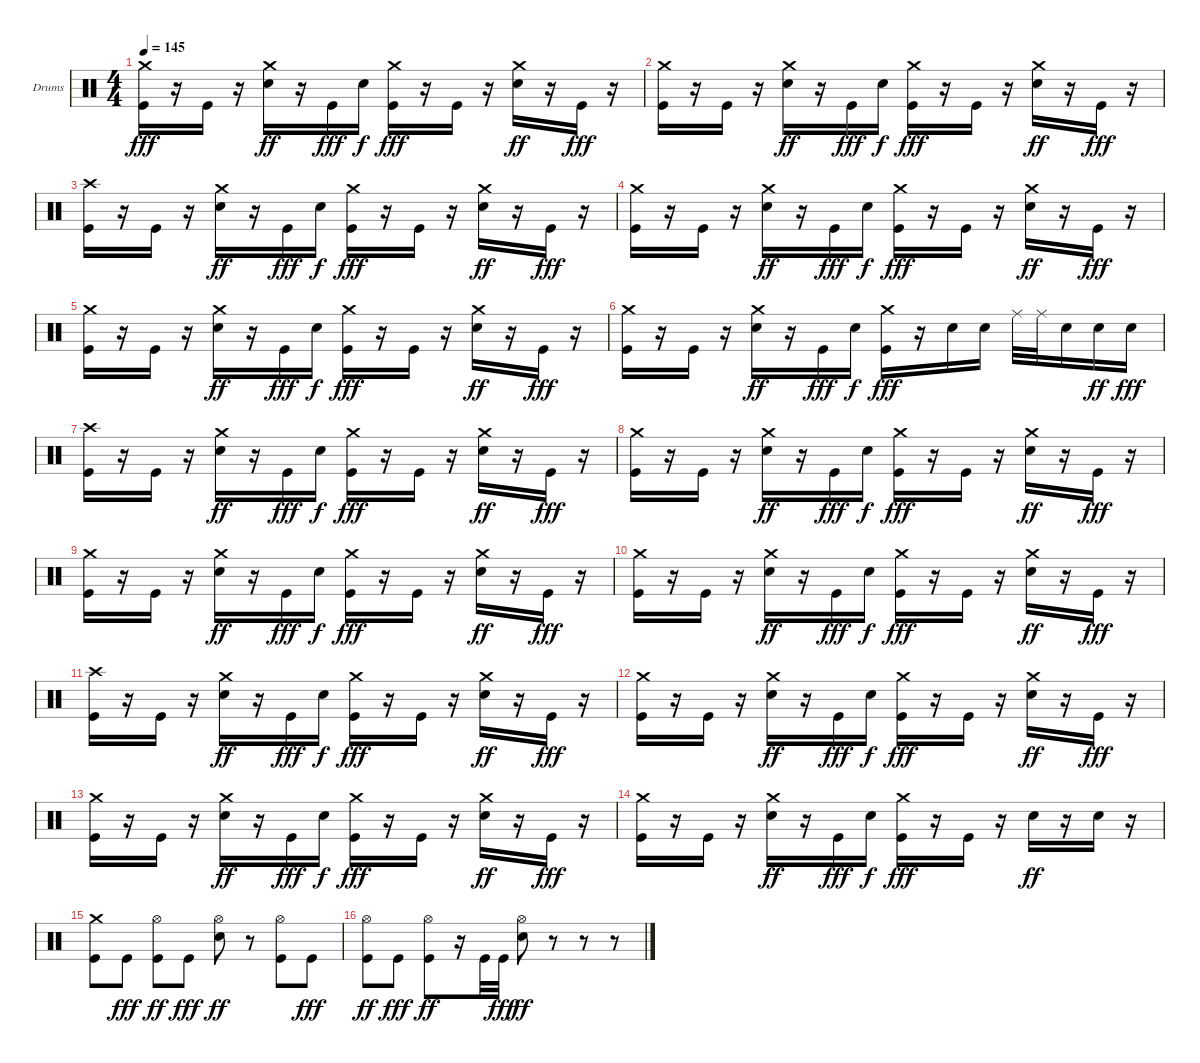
\defaultSystemsLayout 4
\bracketExtendMode groupsimilarinstruments
\firstSystemTrackNameOrientation horizontal
\otherSystemsTrackNameOrientation horizontal
\track ("Drumkit" "Drums") {instrument percussion}
\staff {score}
\articulation defaults
\ts (4 4)
\tempo 145
\clef neutral
\scale
0.333333
\ks c
("Kick (hit)" "Crash medium (hit)").16{dy fff} r.16 "Kick (hit)".16 r.16 ("Snare (hit) 2" "Crash medium (hit)").16{dy ff} r.16 "Kick (hit)".16{dy fff} "Snare (hit) 2".16{dy f} ("Kick (hit)" "Crash medium (hit)").16{dy fff} r.16 "Kick (hit)".16 r.16 ("Snare (hit) 2" "Crash medium (hit)").16{dy ff} r.16 "Kick (hit)".16{dy fff} r.16 |
\scale
0.333333 ("Kick (hit)" "Crash medium (hit)").16 r.16 "Kick (hit)".16 r.16 ("Snare (hit) 2" "Crash medium (hit)").16{dy ff} r.16 "Kick (hit)".16{dy fff} "Snare (hit) 2".16{dy f} ("Kick (hit)" "Crash medium (hit)").16{dy fff} r.16 "Kick (hit)".16 r.16 ("Snare (hit) 2" "Crash medium (hit)").16{dy ff} r.16 "Kick (hit)".16{dy fff} r.16 |
\scale
0.333333 ("Kick (hit)" "Crash high (hit)").16 r.16 "Kick (hit)".16 r.16 ("Snare (hit) 2" "Crash medium (hit)").16{dy ff} r.16 "Kick (hit)".16{dy fff} "Snare (hit) 2".16{dy f} ("Kick (hit)" "Crash medium (hit)").16{dy fff} r.16 "Kick (hit)".16 r.16 ("Snare (hit) 2" "Crash medium (hit)").16{dy ff} r.16 "Kick (hit)".16{dy fff} r.16 |
\scale
0.333333 ("Kick (hit)" "Crash medium (hit)").16 r.16 "Kick (hit)".16 r.16 ("Snare (hit) 2" "Crash medium (hit)").16{dy ff} r.16 "Kick (hit)".16{dy fff} "Snare (hit) 2".16{dy f} ("Kick (hit)" "Crash medium (hit)").16{dy fff} r.16 "Kick (hit)".16 r.16 ("Snare (hit) 2" "Crash medium (hit)").16{dy ff} r.16 "Kick (hit)".16{dy fff} r.16 |
\scale
0.333333 ("Kick (hit)" "Crash medium (hit)").16 r.16 "Kick (hit)".16 r.16 ("Snare (hit) 2" "Crash medium (hit)").16{dy ff} r.16 "Kick (hit)".16{dy fff} "Snare (hit) 2".16{dy f} ("Kick (hit)" "Crash medium (hit)").16{dy fff} r.16 "Kick (hit)".16 r.16 ("Snare (hit) 2" "Crash medium (hit)").16{dy ff} r.16 "Kick (hit)".16{dy fff} r.16 |
\scale
0.333333 ("Kick (hit)" "Crash medium (hit)").16 r.16 "Kick (hit)".16 r.16 ("Snare (hit) 2" "Crash medium (hit)").16{dy ff} r.16 "Kick (hit)".16{dy fff} "Snare (hit) 2".16{dy f} ("Kick (hit)" "Crash medium (hit)").16{dy fff} r.16 "Snare (hit) 2".16 "Snare (hit) 2".16 "Ride (middle)".32 "Ride (middle)".32 "Snare (hit) 2".16 "Snare (hit) 2".16{dy ff} "Snare (hit) 2".16{dy fff} |
\scale
0.333333 ("Kick (hit)" "Crash high (hit)").16 r.16 "Kick (hit)".16 r.16 ("Snare (hit) 2" "Crash medium (hit)").16{dy ff} r.16 "Kick (hit)".16{dy fff} "Snare (hit) 2".16{dy f} ("Kick (hit)" "Crash medium (hit)").16{dy fff} r.16 "Kick (hit)".16 r.16 ("Snare (hit) 2" "Crash medium (hit)").16{dy ff} r.16 "Kick (hit)".16{dy fff} r.16 |
\scale
0.333333 ("Kick (hit)" "Crash medium (hit)").16 r.16 "Kick (hit)".16 r.16 ("Snare (hit) 2" "Crash medium (hit)").16{dy ff} r.16 "Kick (hit)".16{dy fff} "Snare (hit) 2".16{dy f} ("Kick (hit)" "Crash medium (hit)").16{dy fff} r.16 "Kick (hit)".16 r.16 ("Snare (hit) 2" "Crash medium (hit)").16{dy ff} r.16 "Kick (hit)".16{dy fff} r.16 |
\scale
0.333333 ("Kick (hit)" "Crash medium (hit)").16 r.16 "Kick (hit)".16 r.16 ("Snare (hit) 2" "Crash medium (hit)").16{dy ff} r.16 "Kick (hit)".16{dy fff} "Snare (hit) 2".16{dy f} ("Kick (hit)" "Crash medium (hit)").16{dy fff} r.16 "Kick (hit)".16 r.16 ("Snare (hit) 2" "Crash medium (hit)").16{dy ff} r.16 "Kick (hit)".16{dy fff} r.16 |
\scale
0.333333 ("Kick (hit)" "Crash medium (hit)").16 r.16 "Kick (hit)".16 r.16 ("Snare (hit) 2" "Crash medium (hit)").16{dy ff} r.16 "Kick (hit)".16{dy fff} "Snare (hit) 2".16{dy f} ("Kick (hit)" "Crash medium (hit)").16{dy fff} r.16 "Kick (hit)".16 r.16 ("Snare (hit) 2" "Crash medium (hit)").16{dy ff} r.16 "Kick (hit)".16{dy fff} r.16 |
\scale
0.333333 ("Kick (hit)" "Crash high (hit)").16 r.16 "Kick (hit)".16 r.16 ("Snare (hit) 2" "Crash medium (hit)").16{dy ff} r.16 "Kick (hit)".16{dy fff} "Snare (hit) 2".16{dy f} ("Kick (hit)" "Crash medium (hit)").16{dy fff} r.16 "Kick (hit)".16 r.16 ("Snare (hit) 2" "Crash medium (hit)").16{dy ff} r.16 "Kick (hit)".16{dy fff} r.16 |
\scale
0.333333 ("Kick (hit)" "Crash medium (hit)").16 r.16 "Kick (hit)".16 r.16 ("Snare (hit) 2" "Crash medium (hit)").16{dy ff} r.16 "Kick (hit)".16{dy fff} "Snare (hit) 2".16{dy f} ("Kick (hit)" "Crash medium (hit)").16{dy fff} r.16 "Kick (hit)".16 r.16 ("Snare (hit) 2" "Crash medium (hit)").16{dy ff} r.16 "Kick (hit)".16{dy fff} r.16 |
\scale
0.333333 ("Kick (hit)" "Crash medium (hit)").16 r.16 "Kick (hit)".16 r.16 ("Snare (hit) 2" "Crash medium (hit)").16{dy ff} r.16 "Kick (hit)".16{dy fff} "Snare (hit) 2".16{dy f} ("Kick (hit)" "Crash medium (hit)").16{dy fff} r.16 "Kick (hit)".16 r.16 ("Snare (hit) 2" "Crash medium (hit)").16{dy ff} r.16 "Kick (hit)".16{dy fff} r.16 |
\scale
0.333333 ("Kick (hit)" "Crash medium (hit)").16 r.16 "Kick (hit)".16 r.16 ("Snare (hit) 2" "Crash medium (hit)").16{dy ff} r.16 "Kick (hit)".16{dy fff} "Snare (hit) 2".16{dy f} ("Kick (hit)" "Crash medium (hit)").16{dy fff} r.16 "Kick (hit)".16 r.16 "Snare (hit) 2".16{dy ff} r.16 "Snare (hit) 2".16 r.16 |
\scale
0.333333 ("Crash medium (hit)" "Kick (hit)").8 "Kick (hit)".8{dy fff} ("Hi-Hat (open)" "Kick (hit)").8{dy ff} "Kick (hit)".8{dy fff} ("Hi-Hat (open)" "Snare (hit) 2").8{dy ff} r.8 ("Hi-Hat (open)" "Kick (hit)").8 "Kick (hit)".8{dy fff} |
\scale
0.333333 ("Hi-Hat (open)" "Kick (hit)").8{dy ff} "Kick (hit)".8{dy fff} ("Hi-Hat (open)" "Kick (hit)").8{dy ff} r.16 "Kick (hit)".32 "Kick (hit)".32{dy fff} ("Hi-Hat (open)" "Snare (hit) 2").8{dy ff} r.8 r.8 r.8
